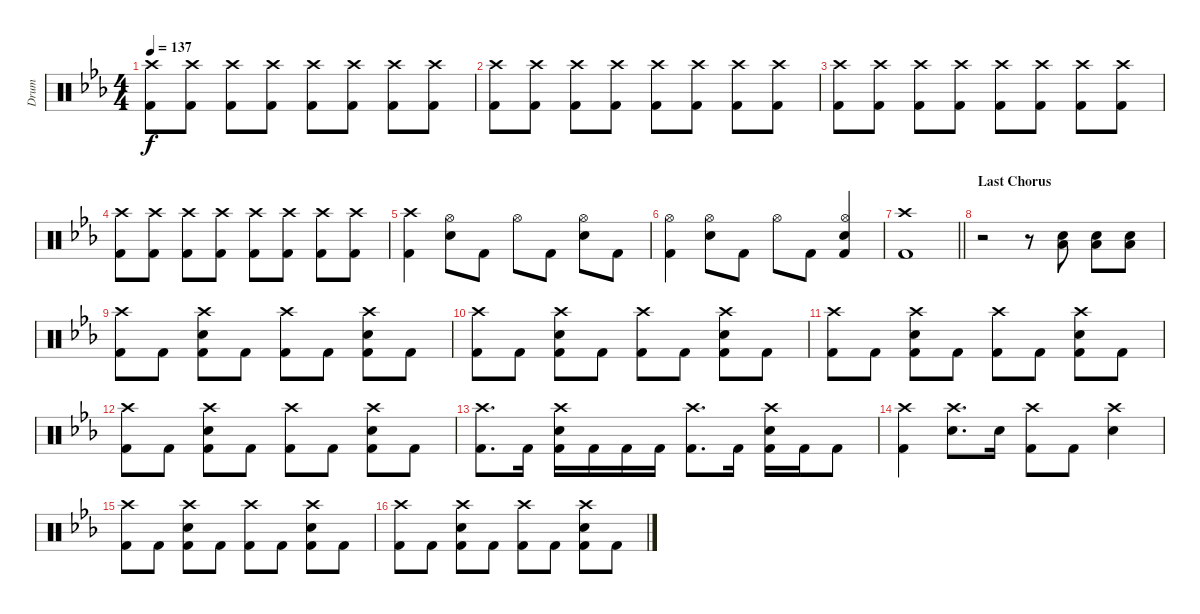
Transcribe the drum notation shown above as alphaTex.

\track ("Drum" "Drum") {instrument percussion}
\staff {score}
\articulation defaults
\ts (4 4)
\tempo 137
\clef neutral
\ks eb
("Crash high (hit)" "Kick (hit) 2").8{dy f} ("Crash high (hit)" "Kick (hit) 2").8 ("Crash high (hit)" "Kick (hit) 2").8 ("Crash high (hit)" "Kick (hit) 2").8 ("Crash high (hit)" "Kick (hit) 2").8 ("Crash high (hit)" "Kick (hit) 2").8 ("Crash high (hit)" "Kick (hit) 2").8 ("Crash high (hit)" "Kick (hit) 2").8 |
("Crash high (hit)" "Kick (hit) 2").8 ("Crash high (hit)" "Kick (hit) 2").8 ("Crash high (hit)" "Kick (hit) 2").8 ("Crash high (hit)" "Kick (hit) 2").8 ("Crash high (hit)" "Kick (hit) 2").8 ("Crash high (hit)" "Kick (hit) 2").8 ("Crash high (hit)" "Kick (hit) 2").8 ("Crash high (hit)" "Kick (hit) 2").8 |
("Crash high (hit)" "Kick (hit) 2").8 ("Crash high (hit)" "Kick (hit) 2").8 ("Crash high (hit)" "Kick (hit) 2").8 ("Crash high (hit)" "Kick (hit) 2").8 ("Crash high (hit)" "Kick (hit) 2").8 ("Crash high (hit)" "Kick (hit) 2").8 ("Crash high (hit)" "Kick (hit) 2").8 ("Crash high (hit)" "Kick (hit) 2").8 |
("Crash high (hit)" "Kick (hit) 2").8 ("Crash high (hit)" "Kick (hit) 2").8 ("Crash high (hit)" "Kick (hit) 2").8 ("Crash high (hit)" "Kick (hit) 2").8 ("Crash high (hit)" "Kick (hit) 2").8 ("Crash high (hit)" "Kick (hit) 2").8 ("Crash high (hit)" "Kick (hit) 2").8 ("Crash high (hit)" "Kick (hit) 2").8 |
("Crash high (hit)" "Kick (hit) 2").4 ("Hi-Hat (open)" "Snare (hit) 2").8 "Kick (hit) 2".8 "Hi-Hat (open)".8 "Kick (hit) 2".8 ("Hi-Hat (open)" "Snare (hit) 2").8 "Kick (hit) 2".8 |
("Hi-Hat (open)" "Kick (hit) 2").4 ("Hi-Hat (open)" "Snare (hit) 2").8 "Kick (hit) 2".8 "Hi-Hat (open)".8 "Kick (hit) 2".8 ("Hi-Hat (open)" "Snare (hit) 2" "Kick (hit) 2").4 |
\barLineRight lightlight
("Crash high (hit)" "Kick (hit) 2").1 |
\section ("" "Last Chorus")
r.2 r.8 ("Low Floor Tom (hit)" "Snare (hit) 2").8 ("Low Floor Tom (hit)" "Snare (hit) 2").8 ("Low Floor Tom (hit)" "Snare (hit) 2").8 |
("Crash high (hit)" "Kick (hit) 2").8 "Kick (hit) 2".8 ("Crash high (hit)" "Snare (hit) 2" "Kick (hit) 2").8 "Kick (hit) 2".8 ("Crash high (hit)" "Kick (hit) 2").8 "Kick (hit) 2".8 ("Crash high (hit)" "Snare (hit) 2" "Kick (hit) 2").8 "Kick (hit) 2".8 |
("Crash high (hit)" "Kick (hit) 2").8 "Kick (hit) 2".8 ("Crash high (hit)" "Snare (hit) 2" "Kick (hit) 2").8 "Kick (hit) 2".8 ("Crash high (hit)" "Kick (hit) 2").8 "Kick (hit) 2".8 ("Crash high (hit)" "Snare (hit) 2" "Kick (hit) 2").8 "Kick (hit) 2".8 |
("Crash high (hit)" "Kick (hit) 2").8 "Kick (hit) 2".8 ("Crash high (hit)" "Snare (hit) 2" "Kick (hit) 2").8 "Kick (hit) 2".8 ("Crash high (hit)" "Kick (hit) 2").8 "Kick (hit) 2".8 ("Crash high (hit)" "Snare (hit) 2" "Kick (hit) 2").8 "Kick (hit) 2".8 |
("Crash high (hit)" "Kick (hit) 2").8 "Kick (hit) 2".8 ("Crash high (hit)" "Snare (hit) 2" "Kick (hit) 2").8 "Kick (hit) 2".8 ("Crash high (hit)" "Kick (hit) 2").8 "Kick (hit) 2".8 ("Crash high (hit)" "Snare (hit) 2" "Kick (hit) 2").8 "Kick (hit) 2".8 |
("Crash high (hit)" "Kick (hit) 2").8{d} "Kick (hit) 2".16 ("Crash high (hit)" "Snare (hit) 2" "Kick (hit) 2").16 "Kick (hit) 2".16 "Kick (hit) 2".16 "Kick (hit) 2".16 ("Crash high (hit)" "Kick (hit) 2").8{d} "Kick (hit) 2".16 ("Crash high (hit)" "Snare (hit) 2" "Kick (hit) 2").16 "Kick (hit) 2".16 "Kick (hit) 2".8 |
("Crash high (hit)" "Kick (hit) 2").4 ("Crash high (hit)" "Snare (hit) 2").8{d} "Snare (hit) 2".16 ("Crash high (hit)" "Kick (hit) 2").8 "Kick (hit) 2".8 ("Crash high (hit)" "Snare (hit) 2").4 |
("Crash high (hit)" "Kick (hit) 2").8 "Kick (hit) 2".8 ("Crash high (hit)" "Snare (hit) 2" "Kick (hit) 2").8 "Kick (hit) 2".8 ("Crash high (hit)" "Kick (hit) 2").8 "Kick (hit) 2".8 ("Crash high (hit)" "Snare (hit) 2" "Kick (hit) 2").8 "Kick (hit) 2".8 |
("Crash high (hit)" "Kick (hit) 2").8 "Kick (hit) 2".8 ("Crash high (hit)" "Snare (hit) 2" "Kick (hit) 2").8 "Kick (hit) 2".8 ("Crash high (hit)" "Kick (hit) 2").8 "Kick (hit) 2".8 ("Crash high (hit)" "Snare (hit) 2" "Kick (hit) 2").8 "Kick (hit) 2".8
